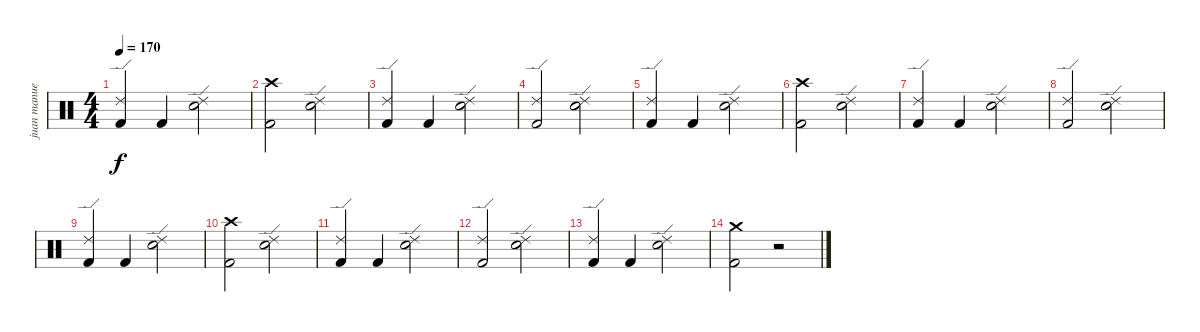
\track ("juan manuel" "juan manue") {instrument percussion}
\staff {score}
\articulation defaults
\ts (4 4)
\tempo 170
\clef neutral
\ks c
("Ride (edge) 2" "Kick (hit) 2").4{dy f} "Kick (hit) 2".4 ("Ride (edge) 2" "Electric Snare (hit)").2 |
("Crash high (hit)" "Kick (hit) 2").2 ("Ride (edge) 2" "Electric Snare (hit)").2 |
("Ride (edge) 2" "Kick (hit) 2").4 "Kick (hit) 2".4 ("Ride (edge) 2" "Electric Snare (hit)").2 |
("Ride (edge) 2" "Kick (hit) 2").2 ("Ride (edge) 2" "Electric Snare (hit)").2 |
("Ride (edge) 2" "Kick (hit) 2").4 "Kick (hit) 2".4 ("Ride (edge) 2" "Electric Snare (hit)").2 |
("Crash high (hit)" "Kick (hit) 2").2 ("Ride (edge) 2" "Electric Snare (hit)").2 |
("Ride (edge) 2" "Kick (hit) 2").4 "Kick (hit) 2".4 ("Ride (edge) 2" "Electric Snare (hit)").2 |
("Ride (edge) 2" "Kick (hit) 2").2 ("Ride (edge) 2" "Electric Snare (hit)").2 |
("Ride (edge) 2" "Kick (hit) 2").4 "Kick (hit) 2".4 ("Ride (edge) 2" "Electric Snare (hit)").2 |
("Crash high (hit)" "Kick (hit) 2").2 ("Ride (edge) 2" "Electric Snare (hit)").2 |
("Ride (edge) 2" "Kick (hit) 2").4 "Kick (hit) 2".4 ("Ride (edge) 2" "Electric Snare (hit)").2 |
("Ride (edge) 2" "Kick (hit) 2").2 ("Ride (edge) 2" "Electric Snare (hit)").2 |
("Ride (edge) 2" "Kick (hit) 2").4 "Kick (hit) 2".4 ("Ride (edge) 2" "Electric Snare (hit)").2 |
("Crash medium (hit)" "Kick (hit) 2").2 r.2
